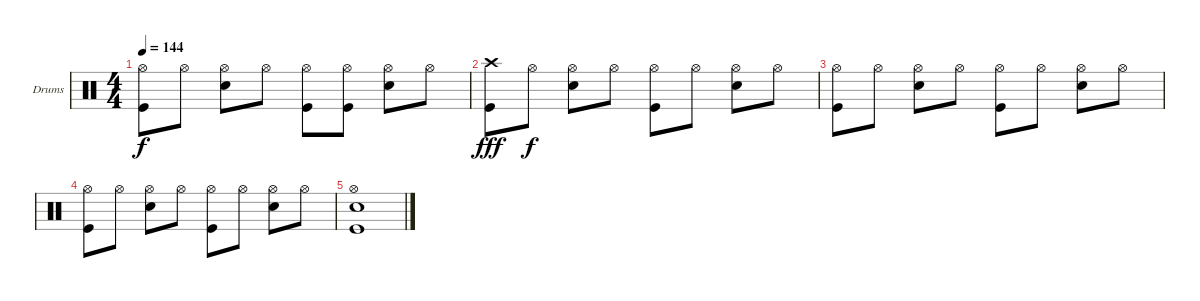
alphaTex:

\bracketExtendMode groupsimilarinstruments
\firstSystemTrackNameOrientation horizontal
\otherSystemsTrackNameOrientation horizontal
\track ("Drums" "Drums") {instrument percussion}
\staff {score}
\articulation defaults
\ts (4 4)
\tempo 144
\clef neutral
\ks c
("Hi-Hat (open)" "Kick (hit)").8{dy f} "Hi-Hat (open)".8 ("Hi-Hat (open)" "Snare (hit) 2").8 "Hi-Hat (open)".8 ("Hi-Hat (open)" "Kick (hit)").8 ("Hi-Hat (open)" "Kick (hit)").8 ("Hi-Hat (open)" "Snare (hit) 2").8 "Hi-Hat (open)".8 |
("Crash high (hit)" "Kick (hit)").8{dy fff} "Hi-Hat (open)".8{dy f} ("Hi-Hat (open)" "Snare (hit) 2").8 "Hi-Hat (open)".8 ("Hi-Hat (open)" "Kick (hit)").8 "Hi-Hat (open)".8 ("Hi-Hat (open)" "Snare (hit) 2").8 "Hi-Hat (open)".8 |
("Hi-Hat (open)" "Kick (hit)").8 "Hi-Hat (open)".8 ("Hi-Hat (open)" "Snare (hit) 2").8 "Hi-Hat (open)".8 ("Hi-Hat (open)" "Kick (hit)").8 "Hi-Hat (open)".8 ("Hi-Hat (open)" "Snare (hit) 2").8 "Hi-Hat (open)".8 |
("Hi-Hat (open)" "Kick (hit)").8 "Hi-Hat (open)".8 ("Hi-Hat (open)" "Snare (hit) 2").8 "Hi-Hat (open)".8 ("Hi-Hat (open)" "Kick (hit)").8 "Hi-Hat (open)".8 ("Hi-Hat (open)" "Snare (hit) 2").8 "Hi-Hat (open)".8 |
("Hi-Hat (open)" "Kick (hit)" "Snare (hit) 2").1
